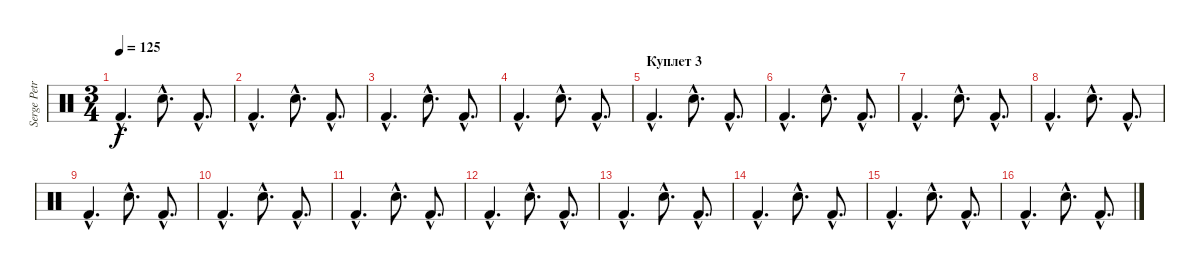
\track ("Serge Petrone" "Serge Petr") {instrument percussion}
\staff {score}
\articulation defaults
\ts (3 4)
\tempo 125
\clef neutral
\ks c "Kick (hit) 2"{hac}.4{d dy f} "Snare (hit) 2"{hac}.8{d} "Kick (hit) 2"{hac}.8{d}
|
"Kick (hit) 2"{hac}.4{d} "Snare (hit) 2"{hac}.8{d} "Kick (hit) 2"{hac}.8{d} |
"Kick (hit) 2"{hac}.4{d} "Snare (hit) 2"{hac}.8{d} "Kick (hit) 2"{hac}.8{d} |
"Kick (hit) 2"{hac}.4{d} "Snare (hit) 2"{hac}.8{d} "Kick (hit) 2"{hac}.8{d} |
\section ("" "Куплет 3")
"Kick (hit) 2"{hac}.4{d} "Snare (hit) 2"{hac}.8{d} "Kick (hit) 2"{hac}.8{d} |
"Kick (hit) 2"{hac}.4{d} "Snare (hit) 2"{hac}.8{d} "Kick (hit) 2"{hac}.8{d} |
"Kick (hit) 2"{hac}.4{d} "Snare (hit) 2"{hac}.8{d} "Kick (hit) 2"{hac}.8{d} |
"Kick (hit) 2"{hac}.4{d} "Snare (hit) 2"{hac}.8{d} "Kick (hit) 2"{hac}.8{d} |
"Kick (hit) 2"{hac}.4{d} "Snare (hit) 2"{hac}.8{d} "Kick (hit) 2"{hac}.8{d} |
"Kick (hit) 2"{hac}.4{d} "Snare (hit) 2"{hac}.8{d} "Kick (hit) 2"{hac}.8{d} |
"Kick (hit) 2"{hac}.4{d} "Snare (hit) 2"{hac}.8{d} "Kick (hit) 2"{hac}.8{d} |
"Kick (hit) 2"{hac}.4{d} "Snare (hit) 2"{hac}.8{d} "Kick (hit) 2"{hac}.8{d} |
"Kick (hit) 2"{hac}.4{d} "Snare (hit) 2"{hac}.8{d} "Kick (hit) 2"{hac}.8{d} |
"Kick (hit) 2"{hac}.4{d} "Snare (hit) 2"{hac}.8{d} "Kick (hit) 2"{hac}.8{d} |
"Kick (hit) 2"{hac}.4{d} "Snare (hit) 2"{hac}.8{d} "Kick (hit) 2"{hac}.8{d} |
"Kick (hit) 2"{hac}.4{d} "Snare (hit) 2"{hac}.8{d} "Kick (hit) 2"{hac}.8{d}
